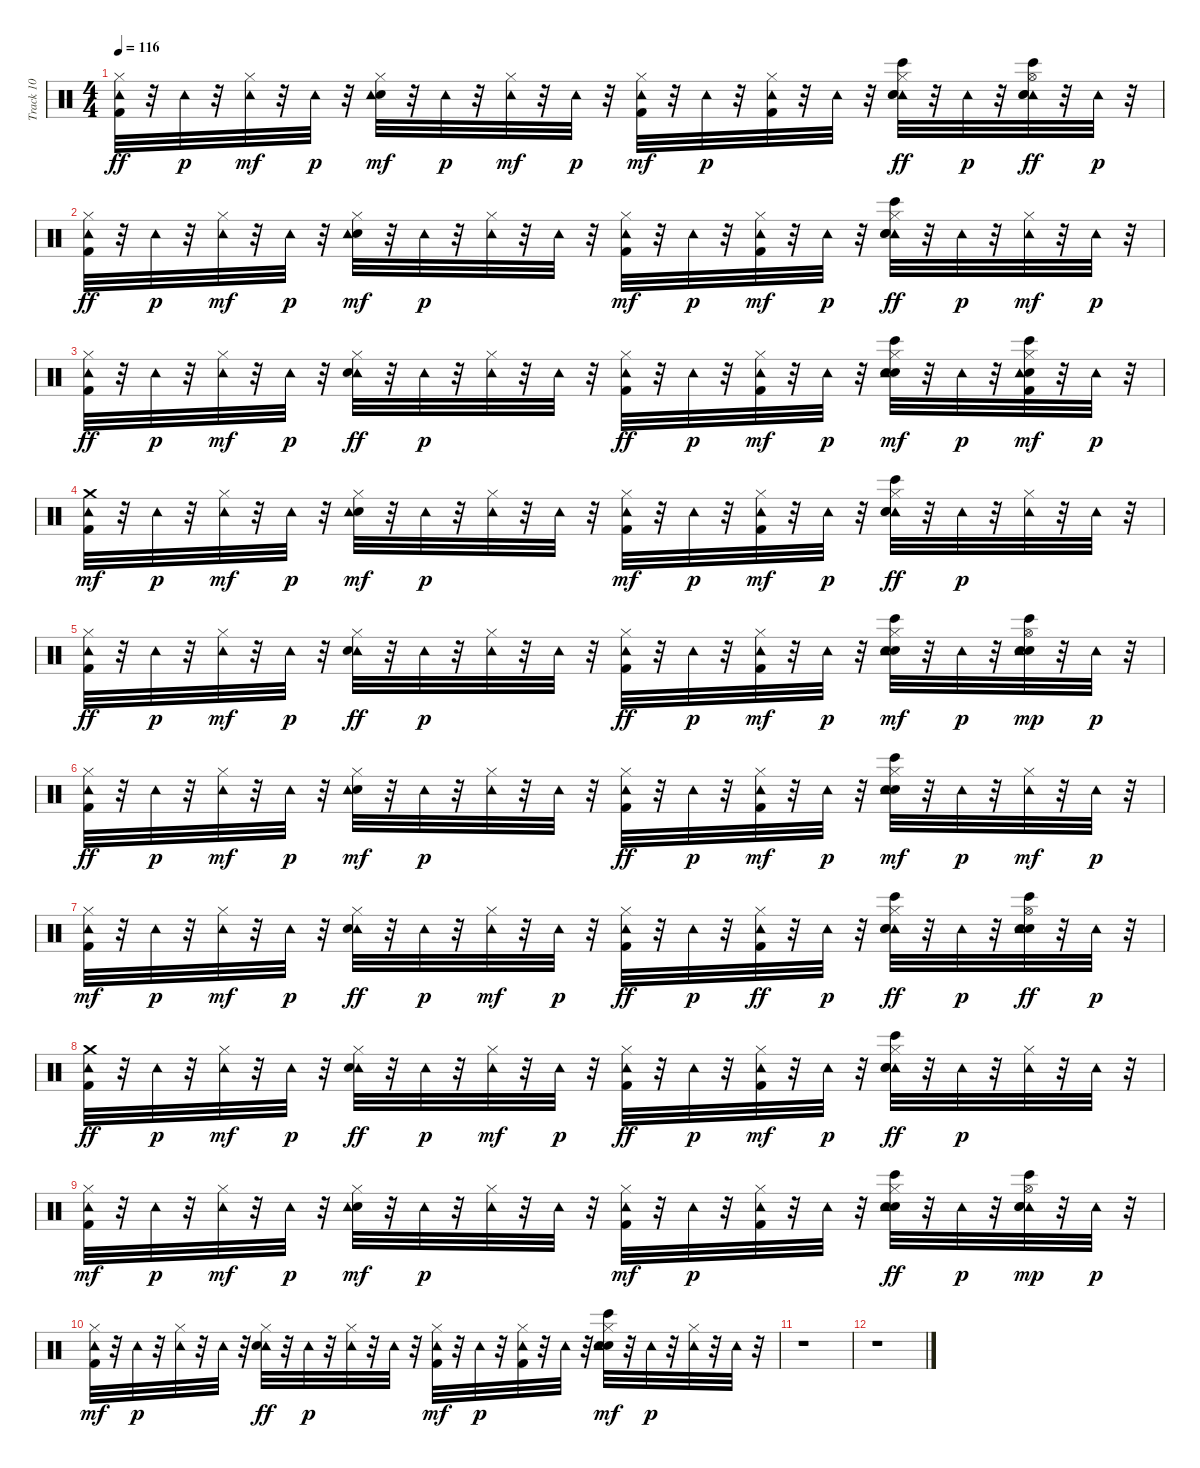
\track ("Track 10" "Track 10") {instrument percussion}
\staff {score}
\articulation defaults
\ts (4 4)
\tempo 116
\clef neutral
\ks c
("Tambourine (hit)" "Kick (hit) 2" "Hi-Hat (closed)").32{dy ff} r.32 "Tambourine (hit)".32{dy p} r.32 ("Hi-Hat (closed)" "Tambourine (hit)").32{dy mf} r.32 "Tambourine (hit)".32{dy p} r.32 ("Hi-Hat (closed)" "Snare (hit) 2" "Tambourine (hit)").32{dy mf} r.32 "Tambourine (hit)".32{dy p} r.32 ("Hi-Hat (closed)" "Tambourine (hit)").32{dy mf} r.32 "Tambourine (hit)".32{dy p} r.32 ("Hi-Hat (closed)" "Kick (hit) 2" "Tambourine (hit)").32{dy mf} r.32 "Tambourine (hit)".32{dy p} r.32 ("Tambourine (hit)" "Kick (hit) 2" "Hi-Hat (closed)").32 r.32 "Tambourine (hit)".32 r.32 ("Tambourine (hit)" "Bongo High (hit)" "Hand Clap (hit)" "Snare (hit) 2" "Hi-Hat (closed)").32{dy ff} r.32 "Tambourine (hit)".32{dy p} r.32 ("Hi-Hat (open)" "Bongo High (hit)" "Tambourine (hit)" "Snare (hit) 2" "Hand Clap (hit)").32{dy ff} r.32 "Tambourine (hit)".32{dy p} r.32 |
("Tambourine (hit)" "Kick (hit) 2" "Hi-Hat (closed)").32{dy ff} r.32 "Tambourine (hit)".32{dy p} r.32 ("Hi-Hat (closed)" "Tambourine (hit)").32{dy mf} r.32 "Tambourine (hit)".32{dy p} r.32 ("Snare (hit) 2" "Hi-Hat (closed)" "Tambourine (hit)").32{dy mf} r.32 "Tambourine (hit)".32{dy p} r.32 ("Tambourine (hit)" "Hi-Hat (closed)").32 r.32 "Tambourine (hit)".32 r.32 ("Kick (hit) 2" "Tambourine (hit)" "Hi-Hat (closed)").32{dy mf} r.32 "Tambourine (hit)".32{dy p} r.32 ("Hi-Hat (closed)" "Kick (hit) 2" "Tambourine (hit)").32{dy mf} r.32 "Tambourine (hit)".32{dy p} r.32 ("Tambourine (hit)" "Snare (hit) 2" "Bongo High (hit)" "Hand Clap (hit)" "Hi-Hat (closed)").32{dy ff} r.32 "Tambourine (hit)".32{dy p} r.32 ("Hi-Hat (closed)" "Tambourine (hit)").32{dy mf} r.32 "Tambourine (hit)".32{dy p} r.32 |
("Tambourine (hit)" "Kick (hit) 2" "Hi-Hat (closed)").32{dy ff} r.32 "Tambourine (hit)".32{dy p} r.32 ("Hi-Hat (closed)" "Tambourine (hit)").32{dy mf} r.32 "Tambourine (hit)".32{dy p} r.32 ("Tambourine (hit)" "Hi-Hat (closed)" "Snare (hit) 2").32{dy ff} r.32 "Tambourine (hit)".32{dy p} r.32 ("Tambourine (hit)" "Hi-Hat (closed)").32 r.32 "Tambourine (hit)".32 r.32 ("Tambourine (hit)" "Kick (hit) 2" "Hi-Hat (closed)").32{dy ff} r.32 "Tambourine (hit)".32{dy p} r.32 ("Hi-Hat (closed)" "Kick (hit) 2" "Tambourine (hit)").32{dy mf} r.32 "Tambourine (hit)".32{dy p} r.32 ("Hi-Hat (closed)" "Snare (hit) 2" "Bongo High (hit)" "Hand Clap (hit)" "Tambourine (hit)").32{dy mf} r.32 "Tambourine (hit)".32{dy p} r.32 ("Kick (hit) 2" "Hi-Hat (closed)" "Hand Clap (hit)" "Bongo High (hit)" "Tambourine (hit)").32{dy mf} r.32 "Tambourine (hit)".32{dy p} r.32 |
("Crash medium (hit)" "Kick (hit) 2" "Tambourine (hit)").32{dy mf} r.32 "Tambourine (hit)".32{dy p} r.32 ("Hi-Hat (closed)" "Tambourine (hit)").32{dy mf} r.32 "Tambourine (hit)".32{dy p} r.32 ("Snare (hit) 2" "Hi-Hat (closed)" "Tambourine (hit)").32{dy mf} r.32 "Tambourine (hit)".32{dy p} r.32 ("Tambourine (hit)" "Hi-Hat (closed)").32 r.32 "Tambourine (hit)".32 r.32 ("Hi-Hat (closed)" "Kick (hit) 2" "Tambourine (hit)").32{dy mf} r.32 "Tambourine (hit)".32{dy p} r.32 ("Hi-Hat (closed)" "Kick (hit) 2" "Tambourine (hit)").32{dy mf} r.32 "Tambourine (hit)".32{dy p} r.32 ("Tambourine (hit)" "Snare (hit) 2" "Hand Clap (hit)" "Hi-Hat (closed)" "Bongo High (hit)").32{dy ff} r.32 "Tambourine (hit)".32{dy p} r.32 ("Tambourine (hit)" "Hi-Hat (closed)").32 r.32 "Tambourine (hit)".32 r.32 |
("Tambourine (hit)" "Hi-Hat (closed)" "Kick (hit) 2").32{dy ff} r.32 "Tambourine (hit)".32{dy p} r.32 ("Hi-Hat (closed)" "Tambourine (hit)").32{dy mf} r.32 "Tambourine (hit)".32{dy p} r.32 ("Hi-Hat (closed)" "Tambourine (hit)" "Snare (hit) 2").32{dy ff} r.32 "Tambourine (hit)".32{dy p} r.32 ("Tambourine (hit)" "Hi-Hat (closed)").32 r.32 "Tambourine (hit)".32 r.32 ("Tambourine (hit)" "Kick (hit) 2" "Hi-Hat (closed)").32{dy ff} r.32 "Tambourine (hit)".32{dy p} r.32 ("Hi-Hat (closed)" "Kick (hit) 2" "Tambourine (hit)").32{dy mf} r.32 "Tambourine (hit)".32{dy p} r.32 ("Hi-Hat (closed)" "Bongo High (hit)" "Hand Clap (hit)" "Snare (hit) 2" "Tambourine (hit)").32{dy mf} r.32 "Tambourine (hit)".32{dy p} r.32 ("Bongo High (hit)" "Snare (hit) 2" "Tambourine (hit)" "Hand Clap (hit)" "Hi-Hat (open)").32{dy mp} r.32 "Tambourine (hit)".32{dy p} r.32 |
("Tambourine (hit)" "Hi-Hat (closed)" "Kick (hit) 2").32{dy ff} r.32 "Tambourine (hit)".32{dy p} r.32 ("Hi-Hat (closed)" "Tambourine (hit)").32{dy mf} r.32 "Tambourine (hit)".32{dy p} r.32 ("Snare (hit) 2" "Hi-Hat (closed)" "Tambourine (hit)").32{dy mf} r.32 "Tambourine (hit)".32{dy p} r.32 ("Tambourine (hit)" "Hi-Hat (closed)").32 r.32 "Tambourine (hit)".32 r.32 ("Tambourine (hit)" "Kick (hit) 2" "Hi-Hat (closed)").32{dy ff} r.32 "Tambourine (hit)".32{dy p} r.32 ("Kick (hit) 2" "Hi-Hat (closed)" "Tambourine (hit)").32{dy mf} r.32 "Tambourine (hit)".32{dy p} r.32 ("Hand Clap (hit)" "Snare (hit) 2" "Bongo High (hit)" "Tambourine (hit)" "Hi-Hat (closed)").32{dy mf} r.32 "Tambourine (hit)".32{dy p} r.32 ("Hi-Hat (closed)" "Tambourine (hit)").32{dy mf} r.32 "Tambourine (hit)".32{dy p} r.32 |
("Hi-Hat (closed)" "Kick (hit) 2" "Tambourine (hit)").32{dy mf} r.32 "Tambourine (hit)".32{dy p} r.32 ("Hi-Hat (closed)" "Tambourine (hit)").32{dy mf} r.32 "Tambourine (hit)".32{dy p} r.32 ("Hi-Hat (closed)" "Tambourine (hit)" "Snare (hit) 2").32{dy ff} r.32 "Tambourine (hit)".32{dy p} r.32 ("Hi-Hat (closed)" "Tambourine (hit)").32{dy mf} r.32 "Tambourine (hit)".32{dy p} r.32 ("Tambourine (hit)" "Kick (hit) 2" "Hi-Hat (closed)").32{dy ff} r.32 "Tambourine (hit)".32{dy p} r.32 ("Hi-Hat (closed)" "Tambourine (hit)" "Kick (hit) 2").32{dy ff} r.32 "Tambourine (hit)".32{dy p} r.32 ("Tambourine (hit)" "Hand Clap (hit)" "Snare (hit) 2" "Bongo High (hit)" "Hi-Hat (closed)").32{dy ff} r.32 "Tambourine (hit)".32{dy p} r.32 ("Hi-Hat (open)" "Hand Clap (hit)" "Snare (hit) 2" "Tambourine (hit)" "Bongo High (hit)").32{dy ff} r.32 "Tambourine (hit)".32{dy p} r.32 |
("Tambourine (hit)" "Crash medium (hit)" "Kick (hit) 2").32{dy ff} r.32 "Tambourine (hit)".32{dy p} r.32 ("Hi-Hat (closed)" "Tambourine (hit)").32{dy mf} r.32 "Tambourine (hit)".32{dy p} r.32 ("Tambourine (hit)" "Snare (hit) 2" "Hi-Hat (closed)").32{dy ff} r.32 "Tambourine (hit)".32{dy p} r.32 ("Hi-Hat (closed)" "Tambourine (hit)").32{dy mf} r.32 "Tambourine (hit)".32{dy p} r.32 ("Hi-Hat (closed)" "Tambourine (hit)" "Kick (hit) 2").32{dy ff} r.32 "Tambourine (hit)".32{dy p} r.32 ("Hi-Hat (closed)" "Kick (hit) 2" "Tambourine (hit)").32{dy mf} r.32 "Tambourine (hit)".32{dy p} r.32 ("Tambourine (hit)" "Hi-Hat (closed)" "Snare (hit) 2" "Hand Clap (hit)" "Bongo High (hit)").32{dy ff} r.32 "Tambourine (hit)".32{dy p} r.32 ("Tambourine (hit)" "Hi-Hat (closed)").32 r.32 "Tambourine (hit)".32 r.32 |
("Hi-Hat (closed)" "Kick (hit) 2" "Tambourine (hit)").32{dy mf} r.32 "Tambourine (hit)".32{dy p} r.32 ("Hi-Hat (closed)" "Tambourine (hit)").32{dy mf} r.32 "Tambourine (hit)".32{dy p} r.32 ("Snare (hit) 2" "Tambourine (hit)" "Hi-Hat (closed)").32{dy mf} r.32 "Tambourine (hit)".32{dy p} r.32 ("Tambourine (hit)" "Hi-Hat (closed)").32 r.32 "Tambourine (hit)".32 r.32 ("Kick (hit) 2" "Tambourine (hit)" "Hi-Hat (closed)").32{dy mf} r.32 "Tambourine (hit)".32{dy p} r.32 ("Tambourine (hit)" "Kick (hit) 2" "Hi-Hat (closed)").32 r.32 "Tambourine (hit)".32 r.32 ("Hi-Hat (closed)" "Snare (hit) 2" "Tambourine (hit)" "Hand Clap (hit)" "Bongo High (hit)").32{dy ff} r.32 "Tambourine (hit)".32{dy p} r.32 ("Bongo High (hit)" "Tambourine (hit)" "Snare (hit) 2" "Hand Clap (hit)" "Hi-Hat (open)").32{dy mp} r.32 "Tambourine (hit)".32{dy p} r.32 |
("Hi-Hat (closed)" "Kick (hit) 2" "Tambourine (hit)").32{dy mf} r.32 "Tambourine (hit)".32{dy p} r.32 ("Tambourine (hit)" "Hi-Hat (closed)").32 r.32 "Tambourine (hit)".32 r.32 ("Tambourine (hit)" "Snare (hit) 2" "Hi-Hat (closed)").32{dy ff} r.32 "Tambourine (hit)".32{dy p} r.32 ("Tambourine (hit)" "Hi-Hat (closed)").32 r.32 "Tambourine (hit)".32 r.32 ("Hi-Hat (closed)" "Kick (hit) 2" "Tambourine (hit)").32{dy mf} r.32 "Tambourine (hit)".32{dy p} r.32 ("Kick (hit) 2" "Tambourine (hit)" "Hi-Hat (closed)").32 r.32 "Tambourine (hit)".32 r.32 ("Bongo High (hit)" "Hand Clap (hit)" "Snare (hit) 2" "Hi-Hat (closed)" "Tambourine (hit)").32{dy mf} r.32 "Tambourine (hit)".32{dy p} r.32 ("Tambourine (hit)" "Hi-Hat (closed)").32 r.32 "Tambourine (hit)".32 r.32 |
r.1 |
r.1
